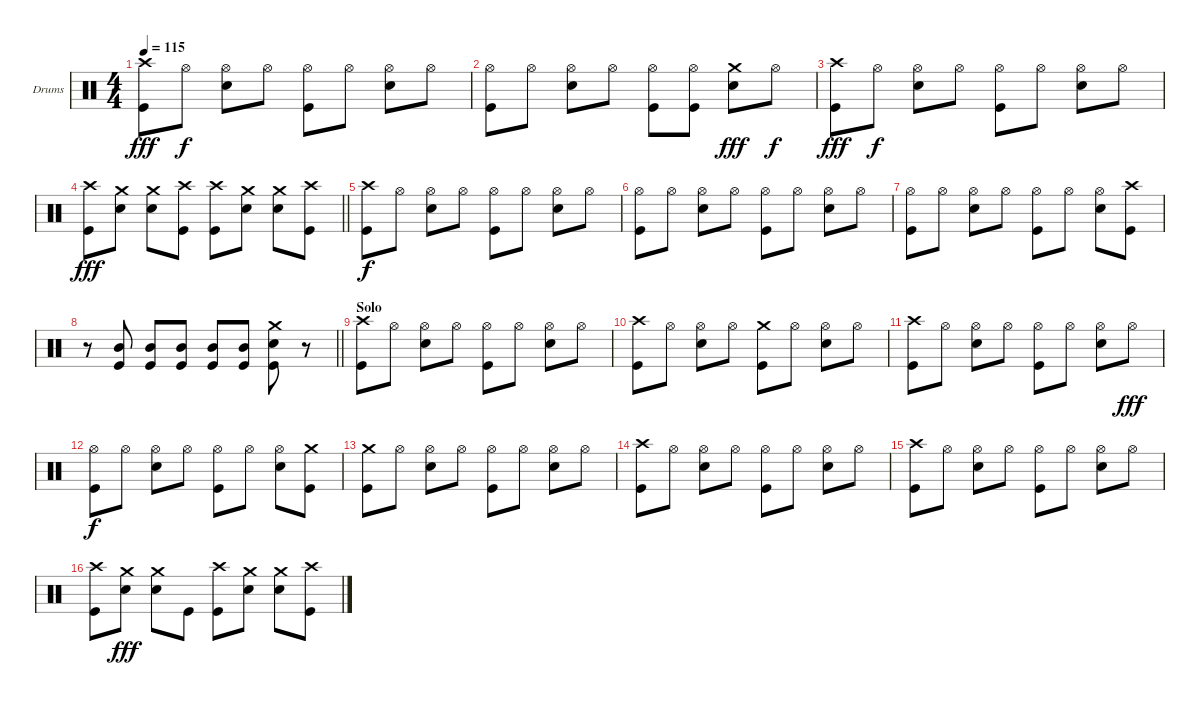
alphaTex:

\bracketExtendMode groupsimilarinstruments
\firstSystemTrackNameOrientation horizontal
\otherSystemsTrackNameOrientation horizontal
\track ("Drumkit" "Drums") {instrument percussion}
\staff {score}
\articulation defaults
\ts (4 4)
\tempo 115
\clef neutral
\ks c
("Crash high (hit)" "Kick (hit)").8{dy fff} "Hi-Hat (open)".8{dy f} ("Hi-Hat (open)" "Snare (hit) 2").8 "Hi-Hat (open)".8 ("Hi-Hat (open)" "Kick (hit)").8 "Hi-Hat (open)".8 ("Hi-Hat (open)" "Snare (hit) 2").8 "Hi-Hat (open)".8 |
("Hi-Hat (open)" "Kick (hit)").8 "Hi-Hat (open)".8 ("Hi-Hat (open)" "Snare (hit) 2").8 "Hi-Hat (open)".8 ("Hi-Hat (open)" "Kick (hit)").8 ("Hi-Hat (open)" "Kick (hit)").8 ("Crash medium (hit)" "Snare (hit) 2").8{dy fff} "Hi-Hat (open)".8{dy f} |
("Crash high (hit)" "Kick (hit)").8{dy fff} "Hi-Hat (open)".8{dy f} ("Hi-Hat (open)" "Snare (hit) 2").8 "Hi-Hat (open)".8 ("Hi-Hat (open)" "Kick (hit)").8 "Hi-Hat (open)".8 ("Hi-Hat (open)" "Snare (hit) 2").8 "Hi-Hat (open)".8 |
\barLineRight lightlight
("Crash high (hit)" "Kick (hit)").8{dy fff} ("Crash medium (hit)" "Snare (hit) 2").8 ("Crash medium (hit)" "Snare (hit) 2").8 ("Crash high (hit)" "Kick (hit)").8 ("Crash high (hit)" "Kick (hit)").8 ("Crash medium (hit)" "Snare (hit) 2").8 ("Crash medium (hit)" "Snare (hit) 2").8 ("Crash high (hit)" "Kick (hit)").8 |
("Crash high (hit)" "Kick (hit)").8{dy f} "Hi-Hat (open)".8 ("Hi-Hat (open)" "Snare (hit) 2").8 "Hi-Hat (open)".8 ("Hi-Hat (open)" "Kick (hit)").8 "Hi-Hat (open)".8 ("Hi-Hat (open)" "Snare (hit) 2").8 "Hi-Hat (open)".8 |
("Hi-Hat (open)" "Kick (hit)").8 "Hi-Hat (open)".8 ("Hi-Hat (open)" "Snare (hit) 2").8 "Hi-Hat (open)".8 ("Hi-Hat (open)" "Kick (hit)").8 "Hi-Hat (open)".8 ("Hi-Hat (open)" "Snare (hit) 2").8 "Hi-Hat (open)".8 |
("Hi-Hat (open)" "Kick (hit)").8 "Hi-Hat (open)".8 ("Hi-Hat (open)" "Snare (hit) 2").8 "Hi-Hat (open)".8 ("Hi-Hat (open)" "Kick (hit)").8 "Hi-Hat (open)".8 ("Hi-Hat (open)" "Snare (hit) 2").8 ("Crash high (hit)" "Kick (hit)").8 |
\barLineRight lightlight
r.8 ("Kick (hit)" "Mid Tom (hit)").8 ("Kick (hit)" "Mid Tom (hit)").8 ("Kick (hit)" "Mid Tom (hit)").8 ("Kick (hit)" "Mid Tom (hit)").8 ("Kick (hit)" "Mid Tom (hit)").8 ("Crash medium (hit)" "Kick (hit)" "Snare (hit) 2").8 r.8 |
\section ("" "Solo")
("Crash high (hit)" "Kick (hit)").8 "Hi-Hat (open)".8 ("Hi-Hat (open)" "Snare (hit) 2").8 "Hi-Hat (open)".8 ("Hi-Hat (open)" "Kick (hit)").8 "Hi-Hat (open)".8 ("Hi-Hat (open)" "Snare (hit) 2").8 "Hi-Hat (open)".8 |
("Crash high (hit)" "Kick (hit)").8 "Hi-Hat (open)".8 ("Hi-Hat (open)" "Snare (hit) 2").8 "Hi-Hat (open)".8 ("Crash medium (hit)" "Kick (hit)").8 "Hi-Hat (open)".8 ("Hi-Hat (open)" "Snare (hit) 2").8 "Hi-Hat (open)".8 |
("Crash high (hit)" "Kick (hit)").8 "Hi-Hat (open)".8 ("Hi-Hat (open)" "Snare (hit) 2").8 "Hi-Hat (open)".8 ("Hi-Hat (open)" "Kick (hit)").8 "Hi-Hat (open)".8 ("Hi-Hat (open)" "Snare (hit) 2").8 "Hi-Hat (open)".8{dy fff} |
("Hi-Hat (open)" "Kick (hit)").8{dy f} "Hi-Hat (open)".8 ("Hi-Hat (open)" "Snare (hit) 2").8 "Hi-Hat (open)".8 ("Hi-Hat (open)" "Kick (hit)").8 "Hi-Hat (open)".8 ("Hi-Hat (open)" "Snare (hit) 2").8 ("Crash medium (hit)" "Kick (hit)").8 |
("Crash medium (hit)" "Kick (hit)").8 "Hi-Hat (open)".8 ("Hi-Hat (open)" "Snare (hit) 2").8 "Hi-Hat (open)".8 ("Hi-Hat (open)" "Kick (hit)").8 "Hi-Hat (open)".8 ("Hi-Hat (open)" "Snare (hit) 2").8 "Hi-Hat (open)".8 |
("Crash high (hit)" "Kick (hit)").8 "Hi-Hat (open)".8 ("Hi-Hat (open)" "Snare (hit) 2").8 "Hi-Hat (open)".8 ("Hi-Hat (open)" "Kick (hit)").8 "Hi-Hat (open)".8 ("Hi-Hat (open)" "Snare (hit) 2").8 "Hi-Hat (open)".8 |
("Crash high (hit)" "Kick (hit)").8 "Hi-Hat (open)".8 ("Hi-Hat (open)" "Snare (hit) 2").8 "Hi-Hat (open)".8 ("Hi-Hat (open)" "Kick (hit)").8 "Hi-Hat (open)".8 ("Hi-Hat (open)" "Snare (hit) 2").8 "Hi-Hat (open)".8 |
("Crash high (hit)" "Kick (hit)").8 ("Crash medium (hit)" "Snare (hit) 2").8{dy fff} ("Crash medium (hit)" "Snare (hit) 2").8 "Kick (hit)".8 ("Crash high (hit)" "Kick (hit)").8 ("Crash medium (hit)" "Snare (hit) 2").8 ("Crash medium (hit)" "Snare (hit) 2").8 ("Crash high (hit)" "Kick (hit)").8
